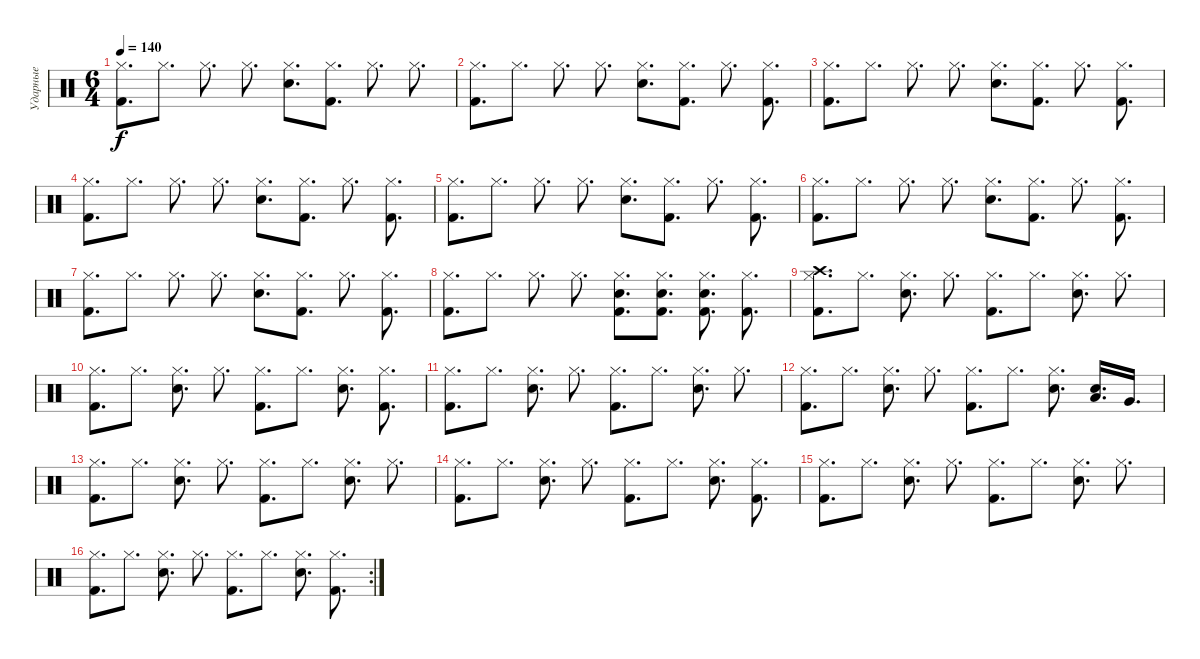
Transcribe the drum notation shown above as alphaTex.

\track ("Ударные" "Ударные") {instrument percussion}
\staff {score}
\articulation defaults
\ts (6 4)
\tempo 140
\clef neutral
\ks c
("Hi-Hat (closed)" "Kick (hit) 2").8{d dy f} "Hi-Hat (closed)".8{d} "Hi-Hat (closed)".8{d} "Hi-Hat (closed)".8{d} ("Hi-Hat (closed)" "Snare (hit) 2").8{d} ("Hi-Hat (closed)" "Kick (hit) 2").8{d} "Hi-Hat (closed)".8{d} "Hi-Hat (closed)".8{d} |
("Hi-Hat (closed)" "Kick (hit) 2").8{d} "Hi-Hat (closed)".8{d} "Hi-Hat (closed)".8{d} "Hi-Hat (closed)".8{d} ("Hi-Hat (closed)" "Snare (hit) 2").8{d} ("Hi-Hat (closed)" "Kick (hit) 2").8{d} "Hi-Hat (closed)".8{d} ("Hi-Hat (closed)" "Kick (hit) 2").8{d} |
("Hi-Hat (closed)" "Kick (hit) 2").8{d} "Hi-Hat (closed)".8{d} "Hi-Hat (closed)".8{d} "Hi-Hat (closed)".8{d} ("Hi-Hat (closed)" "Snare (hit) 2").8{d} ("Hi-Hat (closed)" "Kick (hit) 2").8{d} "Hi-Hat (closed)".8{d} ("Hi-Hat (closed)" "Kick (hit) 2").8{d} |
("Hi-Hat (closed)" "Kick (hit) 2").8{d} "Hi-Hat (closed)".8{d} "Hi-Hat (closed)".8{d} "Hi-Hat (closed)".8{d} ("Hi-Hat (closed)" "Snare (hit) 2").8{d} ("Hi-Hat (closed)" "Kick (hit) 2").8{d} "Hi-Hat (closed)".8{d} ("Hi-Hat (closed)" "Kick (hit) 2").8{d} |
("Hi-Hat (closed)" "Kick (hit) 2").8{d} "Hi-Hat (closed)".8{d} "Hi-Hat (closed)".8{d} "Hi-Hat (closed)".8{d} ("Hi-Hat (closed)" "Snare (hit) 2").8{d} ("Hi-Hat (closed)" "Kick (hit) 2").8{d} "Hi-Hat (closed)".8{d} ("Hi-Hat (closed)" "Kick (hit) 2").8{d} |
("Hi-Hat (closed)" "Kick (hit) 2").8{d} "Hi-Hat (closed)".8{d} "Hi-Hat (closed)".8{d} "Hi-Hat (closed)".8{d} ("Hi-Hat (closed)" "Snare (hit) 2").8{d} ("Hi-Hat (closed)" "Kick (hit) 2").8{d} "Hi-Hat (closed)".8{d} ("Hi-Hat (closed)" "Kick (hit) 2").8{d} |
("Hi-Hat (closed)" "Kick (hit) 2").8{d} "Hi-Hat (closed)".8{d} "Hi-Hat (closed)".8{d} "Hi-Hat (closed)".8{d} ("Hi-Hat (closed)" "Snare (hit) 2").8{d} ("Hi-Hat (closed)" "Kick (hit) 2").8{d} "Hi-Hat (closed)".8{d} ("Hi-Hat (closed)" "Kick (hit) 2").8{d} |
("Hi-Hat (closed)" "Kick (hit) 2").8{d} "Hi-Hat (closed)".8{d} "Hi-Hat (closed)".8{d} "Hi-Hat (closed)".8{d} ("Hi-Hat (closed)" "Kick (hit) 2" "Snare (hit) 2").8{d} ("Hi-Hat (closed)" "Kick (hit) 2" "Snare (hit) 2").8{d} ("Hi-Hat (closed)" "Snare (hit) 2" "Kick (hit) 2").8{d} ("Hi-Hat (closed)" "Kick (hit) 2").8{d} |
("Hi-Hat (closed)" "Crash high (hit)" "Kick (hit) 2").8{d} "Hi-Hat (closed)".8{d} ("Hi-Hat (closed)" "Snare (hit) 2").8{d} "Hi-Hat (closed)".8{d} ("Hi-Hat (closed)" "Kick (hit) 2").8{d} "Hi-Hat (closed)".8{d} ("Hi-Hat (closed)" "Snare (hit) 2").8{d} "Hi-Hat (closed)".8{d} |
("Hi-Hat (closed)" "Kick (hit) 2").8{d} "Hi-Hat (closed)".8{d} ("Hi-Hat (closed)" "Snare (hit) 2").8{d} "Hi-Hat (closed)".8{d} ("Hi-Hat (closed)" "Kick (hit) 2").8{d} "Hi-Hat (closed)".8{d} ("Hi-Hat (closed)" "Snare (hit) 2").8{d} ("Hi-Hat (closed)" "Kick (hit) 2").8{d} |
("Hi-Hat (closed)" "Kick (hit) 2").8{d} "Hi-Hat (closed)".8{d} ("Hi-Hat (closed)" "Snare (hit) 2").8{d} "Hi-Hat (closed)".8{d} ("Hi-Hat (closed)" "Kick (hit) 2").8{d} "Hi-Hat (closed)".8{d} ("Hi-Hat (closed)" "Snare (hit) 2").8{d} "Hi-Hat (closed)".8{d} |
("Hi-Hat (closed)" "Kick (hit) 2").8{d} "Hi-Hat (closed)".8{d} ("Hi-Hat (closed)" "Snare (hit) 2").8{d} "Hi-Hat (closed)".8{d} ("Hi-Hat (closed)" "Kick (hit) 2").8{d} "Hi-Hat (closed)".8{d} ("Hi-Hat (closed)" "Snare (hit) 2").8{d} ("Low Tom (hit)" "Electric Snare (hit)").16{d} "Very Low Tom (hit)".16{d} |
("Hi-Hat (closed)" "Kick (hit) 2").8{d} "Hi-Hat (closed)".8{d} ("Hi-Hat (closed)" "Snare (hit) 2").8{d} "Hi-Hat (closed)".8{d} ("Hi-Hat (closed)" "Kick (hit) 2").8{d} "Hi-Hat (closed)".8{d} ("Hi-Hat (closed)" "Snare (hit) 2").8{d} "Hi-Hat (closed)".8{d} |
("Hi-Hat (closed)" "Kick (hit) 2").8{d} "Hi-Hat (closed)".8{d} ("Hi-Hat (closed)" "Snare (hit) 2").8{d} "Hi-Hat (closed)".8{d} ("Hi-Hat (closed)" "Kick (hit) 2").8{d} "Hi-Hat (closed)".8{d} ("Hi-Hat (closed)" "Snare (hit) 2").8{d} ("Hi-Hat (closed)" "Kick (hit) 2").8{d} |
("Hi-Hat (closed)" "Kick (hit) 2").8{d} "Hi-Hat (closed)".8{d} ("Hi-Hat (closed)" "Snare (hit) 2").8{d} "Hi-Hat (closed)".8{d} ("Hi-Hat (closed)" "Kick (hit) 2").8{d} "Hi-Hat (closed)".8{d} ("Hi-Hat (closed)" "Snare (hit) 2").8{d} "Hi-Hat (closed)".8{d} |
\rc 2
("Hi-Hat (closed)" "Kick (hit) 2").8{d} "Hi-Hat (closed)".8{d} ("Hi-Hat (closed)" "Snare (hit) 2").8{d} "Hi-Hat (closed)".8{d} ("Hi-Hat (closed)" "Kick (hit) 2").8{d} "Hi-Hat (closed)".8{d} ("Hi-Hat (closed)" "Snare (hit) 2").8{d} ("Hi-Hat (closed)" "Kick (hit) 2").8{d}
